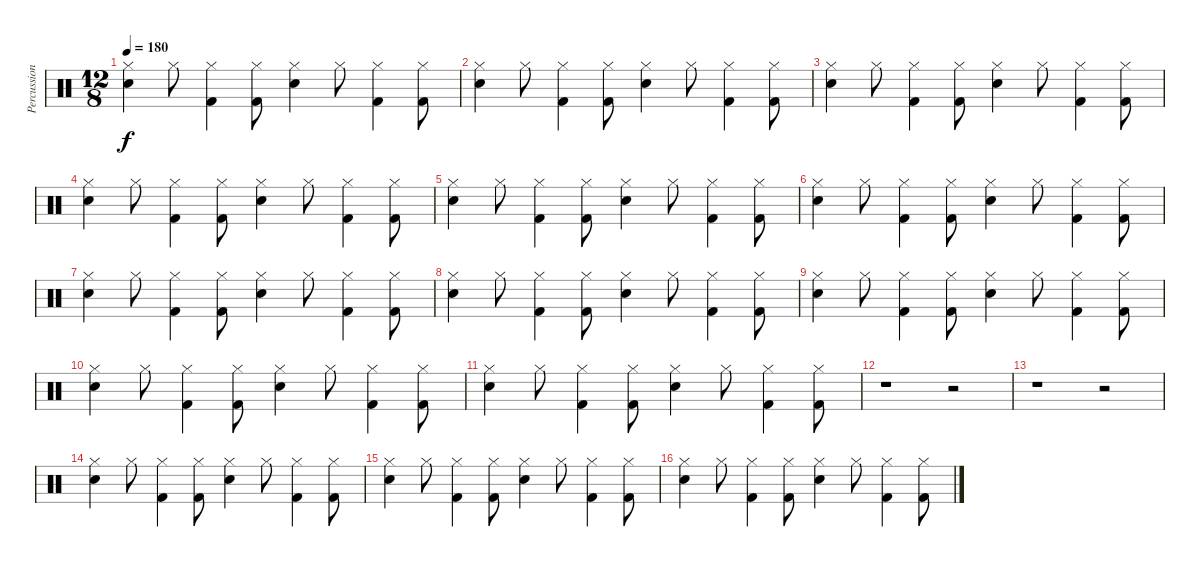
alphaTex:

\track ("Percussion" "Percussion") {instrument percussion}
\staff {score}
\articulation defaults
\ts (12 8)
\tempo 180
\clef neutral
\ks c
("Snare (hit) 2" "Hi-Hat (closed)").4{dy f} "Hi-Hat (closed)".8 ("Kick (hit) 2" "Hi-Hat (closed)").4 ("Kick (hit) 2" "Hi-Hat (closed)").8 ("Snare (hit) 2" "Hi-Hat (closed)").4 "Hi-Hat (closed)".8 ("Kick (hit) 2" "Hi-Hat (closed)").4 ("Kick (hit) 2" "Hi-Hat (closed)").8 |
("Snare (hit) 2" "Hi-Hat (closed)").4 "Hi-Hat (closed)".8 ("Kick (hit) 2" "Hi-Hat (closed)").4 ("Kick (hit) 2" "Hi-Hat (closed)").8 ("Snare (hit) 2" "Hi-Hat (closed)").4 "Hi-Hat (closed)".8 ("Kick (hit) 2" "Hi-Hat (closed)").4 ("Kick (hit) 2" "Hi-Hat (closed)").8 |
("Snare (hit) 2" "Hi-Hat (closed)").4 "Hi-Hat (closed)".8 ("Kick (hit) 2" "Hi-Hat (closed)").4 ("Kick (hit) 2" "Hi-Hat (closed)").8 ("Snare (hit) 2" "Hi-Hat (closed)").4 "Hi-Hat (closed)".8 ("Kick (hit) 2" "Hi-Hat (closed)").4 ("Kick (hit) 2" "Hi-Hat (closed)").8 |
("Snare (hit) 2" "Hi-Hat (closed)").4 "Hi-Hat (closed)".8 ("Kick (hit) 2" "Hi-Hat (closed)").4 ("Kick (hit) 2" "Hi-Hat (closed)").8 ("Snare (hit) 2" "Hi-Hat (closed)").4 "Hi-Hat (closed)".8 ("Kick (hit) 2" "Hi-Hat (closed)").4 ("Kick (hit) 2" "Hi-Hat (closed)").8 |
("Snare (hit) 2" "Hi-Hat (closed)").4 "Hi-Hat (closed)".8 ("Kick (hit) 2" "Hi-Hat (closed)").4 ("Kick (hit) 2" "Hi-Hat (closed)").8 ("Snare (hit) 2" "Hi-Hat (closed)").4 "Hi-Hat (closed)".8 ("Kick (hit) 2" "Hi-Hat (closed)").4 ("Kick (hit) 2" "Hi-Hat (closed)").8 |
("Snare (hit) 2" "Hi-Hat (closed)").4 "Hi-Hat (closed)".8 ("Kick (hit) 2" "Hi-Hat (closed)").4 ("Kick (hit) 2" "Hi-Hat (closed)").8 ("Snare (hit) 2" "Hi-Hat (closed)").4 "Hi-Hat (closed)".8 ("Kick (hit) 2" "Hi-Hat (closed)").4 ("Kick (hit) 2" "Hi-Hat (closed)").8 |
("Snare (hit) 2" "Hi-Hat (closed)").4 "Hi-Hat (closed)".8 ("Kick (hit) 2" "Hi-Hat (closed)").4 ("Kick (hit) 2" "Hi-Hat (closed)").8 ("Snare (hit) 2" "Hi-Hat (closed)").4 "Hi-Hat (closed)".8 ("Kick (hit) 2" "Hi-Hat (closed)").4 ("Kick (hit) 2" "Hi-Hat (closed)").8 |
("Snare (hit) 2" "Hi-Hat (closed)").4 "Hi-Hat (closed)".8 ("Kick (hit) 2" "Hi-Hat (closed)").4 ("Kick (hit) 2" "Hi-Hat (closed)").8 ("Snare (hit) 2" "Hi-Hat (closed)").4 "Hi-Hat (closed)".8 ("Kick (hit) 2" "Hi-Hat (closed)").4 ("Kick (hit) 2" "Hi-Hat (closed)").8 |
("Snare (hit) 2" "Hi-Hat (closed)").4 "Hi-Hat (closed)".8 ("Kick (hit) 2" "Hi-Hat (closed)").4 ("Kick (hit) 2" "Hi-Hat (closed)").8 ("Snare (hit) 2" "Hi-Hat (closed)").4 "Hi-Hat (closed)".8 ("Kick (hit) 2" "Hi-Hat (closed)").4 ("Kick (hit) 2" "Hi-Hat (closed)").8 |
("Snare (hit) 2" "Hi-Hat (closed)").4 "Hi-Hat (closed)".8 ("Kick (hit) 2" "Hi-Hat (closed)").4 ("Kick (hit) 2" "Hi-Hat (closed)").8 ("Snare (hit) 2" "Hi-Hat (closed)").4 "Hi-Hat (closed)".8 ("Kick (hit) 2" "Hi-Hat (closed)").4 ("Kick (hit) 2" "Hi-Hat (closed)").8 |
("Snare (hit) 2" "Hi-Hat (closed)").4 "Hi-Hat (closed)".8 ("Kick (hit) 2" "Hi-Hat (closed)").4 ("Kick (hit) 2" "Hi-Hat (closed)").8 ("Snare (hit) 2" "Hi-Hat (closed)").4 "Hi-Hat (closed)".8 ("Kick (hit) 2" "Hi-Hat (closed)").4 ("Kick (hit) 2" "Hi-Hat (closed)").8 |
r.1 r.2 |
r.1 r.2 |
("Snare (hit) 2" "Hi-Hat (closed)").4 "Hi-Hat (closed)".8 ("Kick (hit) 2" "Hi-Hat (closed)").4 ("Kick (hit) 2" "Hi-Hat (closed)").8 ("Snare (hit) 2" "Hi-Hat (closed)").4 "Hi-Hat (closed)".8 ("Kick (hit) 2" "Hi-Hat (closed)").4 ("Kick (hit) 2" "Hi-Hat (closed)").8 |
("Snare (hit) 2" "Hi-Hat (closed)").4 "Hi-Hat (closed)".8 ("Kick (hit) 2" "Hi-Hat (closed)").4 ("Kick (hit) 2" "Hi-Hat (closed)").8 ("Snare (hit) 2" "Hi-Hat (closed)").4 "Hi-Hat (closed)".8 ("Kick (hit) 2" "Hi-Hat (closed)").4 ("Kick (hit) 2" "Hi-Hat (closed)").8 |
("Snare (hit) 2" "Hi-Hat (closed)").4 "Hi-Hat (closed)".8 ("Kick (hit) 2" "Hi-Hat (closed)").4 ("Kick (hit) 2" "Hi-Hat (closed)").8 ("Snare (hit) 2" "Hi-Hat (closed)").4 "Hi-Hat (closed)".8 ("Kick (hit) 2" "Hi-Hat (closed)").4 ("Kick (hit) 2" "Hi-Hat (closed)").8
